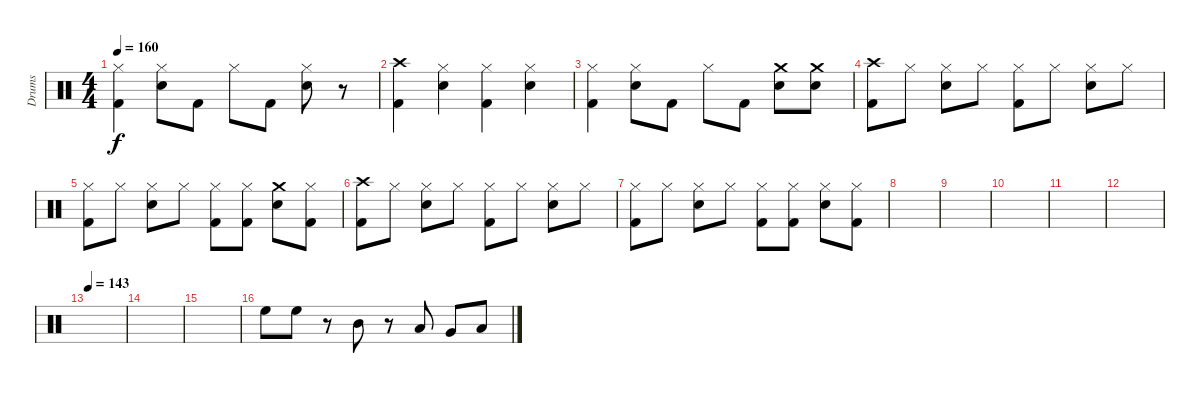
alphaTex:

\track ("Drums" "Drums") {instrument percussion}
\staff {score}
\articulation defaults
\ts (4 4)
\tempo 160
\clef neutral
\ks c
("Hi-Hat (closed)" "Kick (hit) 2").4{dy f} ("Hi-Hat (closed)" "Electric Snare (hit)").8 "Kick (hit) 2".8 "Hi-Hat (closed)".8 "Kick (hit) 2".8 ("Hi-Hat (closed)" "Electric Snare (hit)").8 r.8 |
("Crash high (hit)" "Kick (hit) 2").4 ("Hi-Hat (closed)" "Electric Snare (hit)").4 ("Hi-Hat (closed)" "Kick (hit) 2").4 ("Hi-Hat (closed)" "Electric Snare (hit)").4 |
("Hi-Hat (closed)" "Kick (hit) 2").4 ("Hi-Hat (closed)" "Electric Snare (hit)").8 "Kick (hit) 2".8 "Hi-Hat (closed)".8 "Kick (hit) 2".8 ("Crash medium (hit)" "Electric Snare (hit)").8 ("Crash medium (hit)" "Electric Snare (hit)").8 |
("Crash high (hit)" "Kick (hit) 2").8 "Hi-Hat (closed)".8 ("Hi-Hat (closed)" "Electric Snare (hit)").8 "Hi-Hat (closed)".8 ("Hi-Hat (closed)" "Kick (hit) 2").8 "Hi-Hat (closed)".8 ("Hi-Hat (closed)" "Electric Snare (hit)").8 "Hi-Hat (closed)".8 |
("Hi-Hat (closed)" "Kick (hit) 2").8 "Hi-Hat (closed)".8 ("Hi-Hat (closed)" "Electric Snare (hit)").8 "Hi-Hat (closed)".8 ("Hi-Hat (closed)" "Kick (hit) 2").8 ("Hi-Hat (closed)" "Kick (hit) 2").8 ("Crash medium (hit)" "Electric Snare (hit)").8 ("Hi-Hat (closed)" "Kick (hit) 2").8 |
("Crash high (hit)" "Kick (hit) 2").8 "Hi-Hat (closed)".8 ("Hi-Hat (closed)" "Electric Snare (hit)").8 "Hi-Hat (closed)".8 ("Hi-Hat (closed)" "Kick (hit) 2").8 "Hi-Hat (closed)".8 ("Hi-Hat (closed)" "Electric Snare (hit)").8 "Hi-Hat (closed)".8 |
("Hi-Hat (closed)" "Kick (hit) 2").8 "Hi-Hat (closed)".8 ("Hi-Hat (closed)" "Electric Snare (hit)").8 "Hi-Hat (closed)".8 ("Hi-Hat (closed)" "Kick (hit) 2").8 ("Hi-Hat (closed)" "Kick (hit) 2").8 ("Hi-Hat (closed)" "Electric Snare (hit)").8 ("Hi-Hat (closed)" "Kick (hit) 2").8 |
|
|
|
|
|
\tempo 143
|
|
|
"High Floor Tom (hit)".8{volume 8} "High Floor Tom (hit)".8 r.8 "Mid Tom (hit)".8 r.8 "Low Tom (hit)".8 "Very Low Tom (hit)".8 "Low Floor Tom (hit)".8
